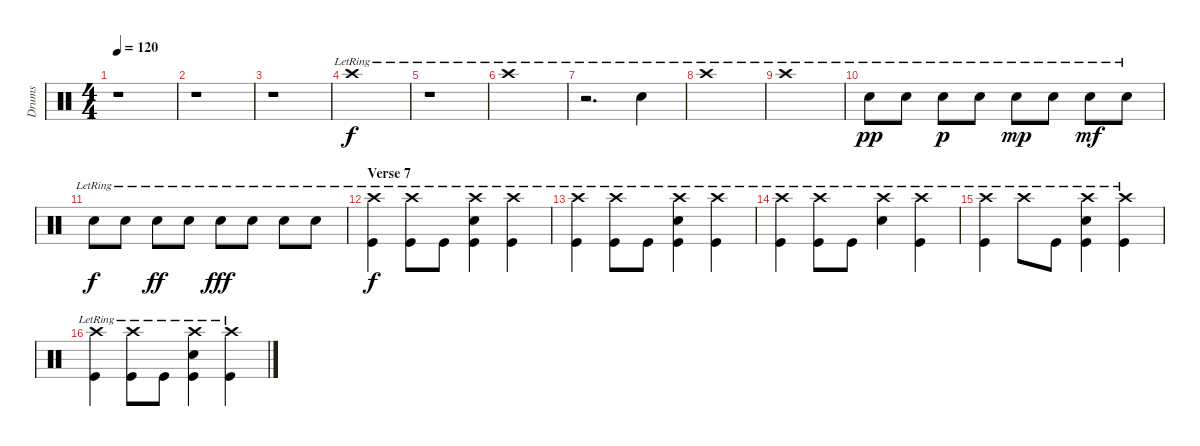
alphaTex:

\track ("Drums" "Drums") {instrument percussion}
\staff {score}
\articulation defaults
\ts (4 4)
\tempo 120
\clef neutral
\ks c
r.1{dy f} |
r.1 |
r.1 |
"Crash high (hit)"{lr}.1{volume 16} |
r.1 |
"Crash high (hit)"{lr}.1 |
r.2{d} "Snare (hit) 2"{lr}.4 |
"Crash high (hit)"{lr}.1 |
"Crash high (hit)"{lr}.1 |
"Snare (hit) 2"{lr}.8{dy pp} "Snare (hit) 2"{lr}.8 "Snare (hit) 2"{lr}.8{dy p} "Snare (hit) 2"{lr}.8 "Snare (hit) 2"{lr}.8{dy mp} "Snare (hit) 2"{lr}.8 "Snare (hit) 2"{lr}.8{dy mf} "Snare (hit) 2"{lr}.8 |
"Snare (hit) 2"{lr}.8{dy f} "Snare (hit) 2"{lr}.8 "Snare (hit) 2"{lr}.8{dy ff} "Snare (hit) 2"{lr}.8 "Snare (hit) 2"{lr}.8{dy fff} "Snare (hit) 2"{lr}.8 "Snare (hit) 2"{lr}.8 "Snare (hit) 2"{lr}.8 |
\section ("" "Verse 7")
("Crash high (hit)"{lr} "Kick (hit)"{lr}).4{dy f} ("Crash high (hit)"{lr} "Kick (hit)").8 "Kick (hit)"{lr}.8 ("Crash high (hit)"{lr} "Snare (hit) 2"{lr} "Kick (hit)").4 ("Crash high (hit)"{lr} "Kick (hit)").4 |
("Crash high (hit)"{lr} "Kick (hit)"{lr}).4 ("Crash high (hit)"{lr} "Kick (hit)").8 "Kick (hit)"{lr}.8 ("Crash high (hit)"{lr} "Snare (hit) 2"{lr} "Kick (hit)").4 ("Crash high (hit)"{lr} "Kick (hit)").4 |
("Crash high (hit)"{lr} "Kick (hit)"{lr}).4 ("Crash high (hit)"{lr} "Kick (hit)").8 "Kick (hit)"{lr}.8 ("Crash high (hit)"{lr} "Snare (hit) 2"{lr}).4 ("Crash high (hit)"{lr} "Kick (hit)").4 |
("Crash high (hit)"{lr} "Kick (hit)"{lr}).4 "Crash high (hit)"{lr}.8 "Kick (hit)"{lr}.8 ("Crash high (hit)"{lr} "Snare (hit) 2"{lr} "Kick (hit)").4 ("Crash high (hit)"{lr} "Kick (hit)").4 |
("Crash high (hit)"{lr} "Kick (hit)"{lr}).4 ("Crash high (hit)"{lr} "Kick (hit)").8 "Kick (hit)"{lr}.8 ("Crash high (hit)"{lr} "Snare (hit) 2"{lr} "Kick (hit)").4 ("Crash high (hit)"{lr} "Kick (hit)").4
